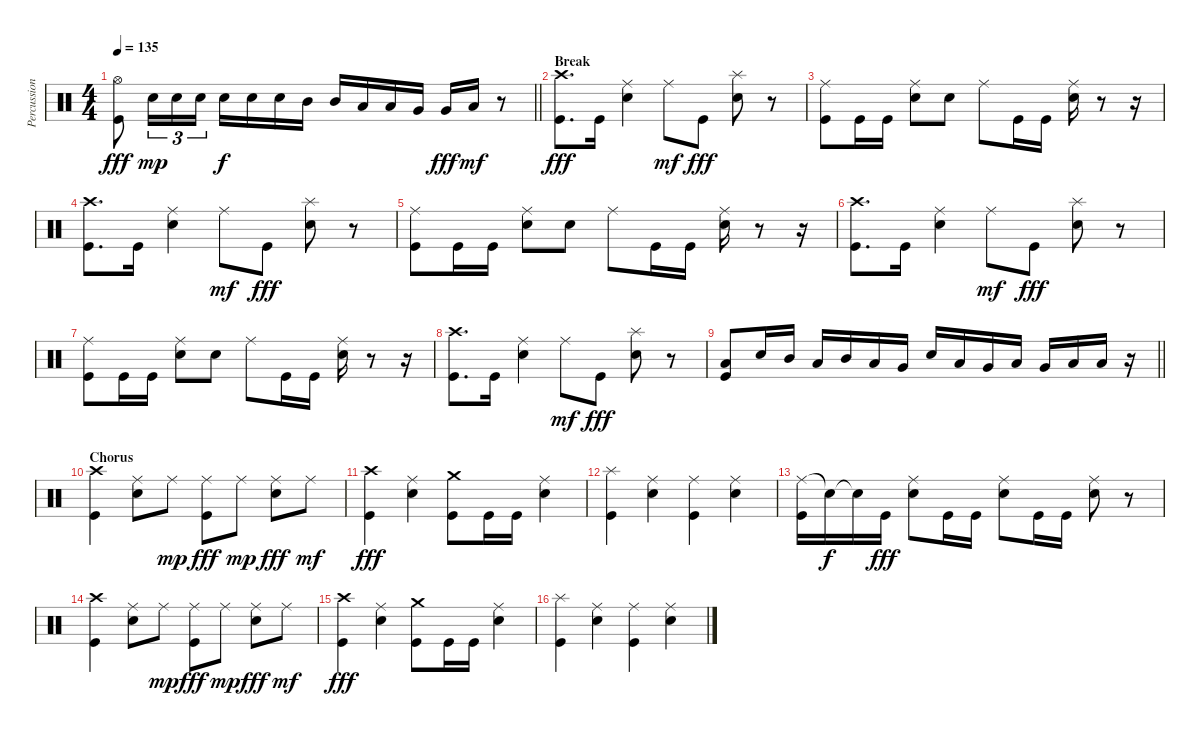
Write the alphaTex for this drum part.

\track ("Percussion/Nicko McBrain" "Percussion") {instrument percussion}
\staff {score}
\articulation defaults
\ts (4 4)
\tempo 135
\clef neutral
\barLineRight lightlight
\ks c
("Hi-Hat (open)" "Kick (hit)").8{dy fff} "Electric Snare (hit)".16{tu (3 2) dy mp} "Electric Snare (hit)".16{tu (3 2)} "Electric Snare (hit)".16{tu (3 2)} "Electric Snare (hit)".16{dy f} "Electric Snare (hit)".16 "Electric Snare (hit)".16 "Mid Tom (hit)".16 "Mid Tom (hit)".16 "Low Tom (hit)".16 "Low Tom (hit)".16 "Very Low Tom (hit)".16 "Very Low Tom (hit)".16{dy fff} "Low Floor Tom (hit)".16{dy mf} r.8 |
\section ("" "Break")
("Crash high (hit)" "Kick (hit)").8{d dy fff} "Kick (hit)".16 ("Ride (middle)" "Electric Snare (hit)").4 "Ride (middle)".8{dy mf} "Kick (hit)".8{dy fff} ("Splash (hit)" "Electric Snare (hit)").8 r.8 |
("Ride (middle)" "Kick (hit)").8 "Kick (hit)".16 "Kick (hit)".16 ("Ride (middle)" "Electric Snare (hit)").8 "Electric Snare (hit)".8 "Ride (middle)".8 "Kick (hit)".16 "Kick (hit)".16 ("Ride (middle)" "Electric Snare (hit)").16 r.8 r.16 |
("Crash high (hit)" "Kick (hit)").8{d} "Kick (hit)".16 ("Ride (middle)" "Electric Snare (hit)").4 "Ride (middle)".8{dy mf} "Kick (hit)".8{dy fff} ("Splash (hit)" "Electric Snare (hit)").8 r.8 |
("Ride (middle)" "Kick (hit)").8 "Kick (hit)".16 "Kick (hit)".16 ("Ride (middle)" "Electric Snare (hit)").8 "Electric Snare (hit)".8 "Ride (middle)".8 "Kick (hit)".16 "Kick (hit)".16 ("Ride (middle)" "Electric Snare (hit)").16 r.8 r.16 |
("Crash high (hit)" "Kick (hit)").8{d} "Kick (hit)".16 ("Ride (middle)" "Electric Snare (hit)").4 "Ride (middle)".8{dy mf} "Kick (hit)".8{dy fff} ("Splash (hit)" "Electric Snare (hit)").8 r.8 |
("Ride (middle)" "Kick (hit)").8 "Kick (hit)".16 "Kick (hit)".16 ("Ride (middle)" "Electric Snare (hit)").8 "Electric Snare (hit)".8 "Ride (middle)".8 "Kick (hit)".16 "Kick (hit)".16 ("Ride (middle)" "Electric Snare (hit)").16 r.8 r.16 |
("Crash high (hit)" "Kick (hit)").8{d} "Kick (hit)".16 ("Ride (middle)" "Electric Snare (hit)").4 "Ride (middle)".8{dy mf} "Kick (hit)".8{dy fff} ("Splash (hit)" "Electric Snare (hit)").8 r.8 |
\barLineRight lightlight
("Low Floor Tom (hit)" "Kick (hit)").8 "Electric Snare (hit)".16 "Mid Tom (hit)".16 "Low Tom (hit)".16 "Mid Tom (hit)".16 "Low Tom (hit)".16 "Very Low Tom (hit)".16 "Snare (hit) 2".16 "Low Tom (hit)".16 "Very Low Tom (hit)".16 "Low Floor Tom (hit)".16 "Very Low Tom (hit)".16 "Low Floor Tom (hit)".16 "Low Floor Tom (hit)".16 r.16 |
\section ("" "Chorus")
("Crash high (hit)" "Kick (hit)").4 ("Ride (middle)" "Electric Snare (hit)").8 "Ride (middle)".8{dy mp} ("Ride (middle)" "Kick (hit)").8{dy fff} "Ride (middle)".8{dy mp} ("Ride (middle)" "Electric Snare (hit)").8{dy fff} "Ride (middle)".8{dy mf} |
("Crash high (hit)" "Kick (hit)").4{dy fff} ("Ride (middle)" "Electric Snare (hit)").4 ("Crash medium (hit)" "Kick (hit)").8 "Kick (hit)".16 "Kick (hit)".16 ("Ride (middle)" "Electric Snare (hit)").4 |
("Splash (hit)" "Kick (hit)").4 ("Ride (middle)" "Electric Snare (hit)").4 ("Ride (middle)" "Kick (hit)").4 ("Ride (middle)" "Electric Snare (hit)").4 |
("Ride (middle)" "Kick (hit)").16 "Snare (hit)"{t}.16{dy f} "Snare (hit)"{t}.16 "Kick (hit)".16{dy fff} ("Ride (middle)" "Electric Snare (hit)").8 "Kick (hit)".16 "Kick (hit)".16 ("Ride (middle)" "Electric Snare (hit)").8 "Kick (hit)".16 "Kick (hit)".16 ("Ride (middle)" "Electric Snare (hit)").8 r.8 |
("Crash high (hit)" "Kick (hit)").4 ("Ride (middle)" "Electric Snare (hit)").8 "Ride (middle)".8{dy mp} ("Ride (middle)" "Kick (hit)").8{dy fff} "Ride (middle)".8{dy mp} ("Ride (middle)" "Electric Snare (hit)").8{dy fff} "Ride (middle)".8{dy mf} |
("Crash high (hit)" "Kick (hit)").4{dy fff} ("Ride (middle)" "Electric Snare (hit)").4 ("Crash medium (hit)" "Kick (hit)").8 "Kick (hit)".16 "Kick (hit)".16 ("Ride (middle)" "Electric Snare (hit)").4 |
("Splash (hit)" "Kick (hit)").4 ("Ride (middle)" "Electric Snare (hit)").4 ("Ride (middle)" "Kick (hit)").4 ("Ride (middle)" "Electric Snare (hit)").4
